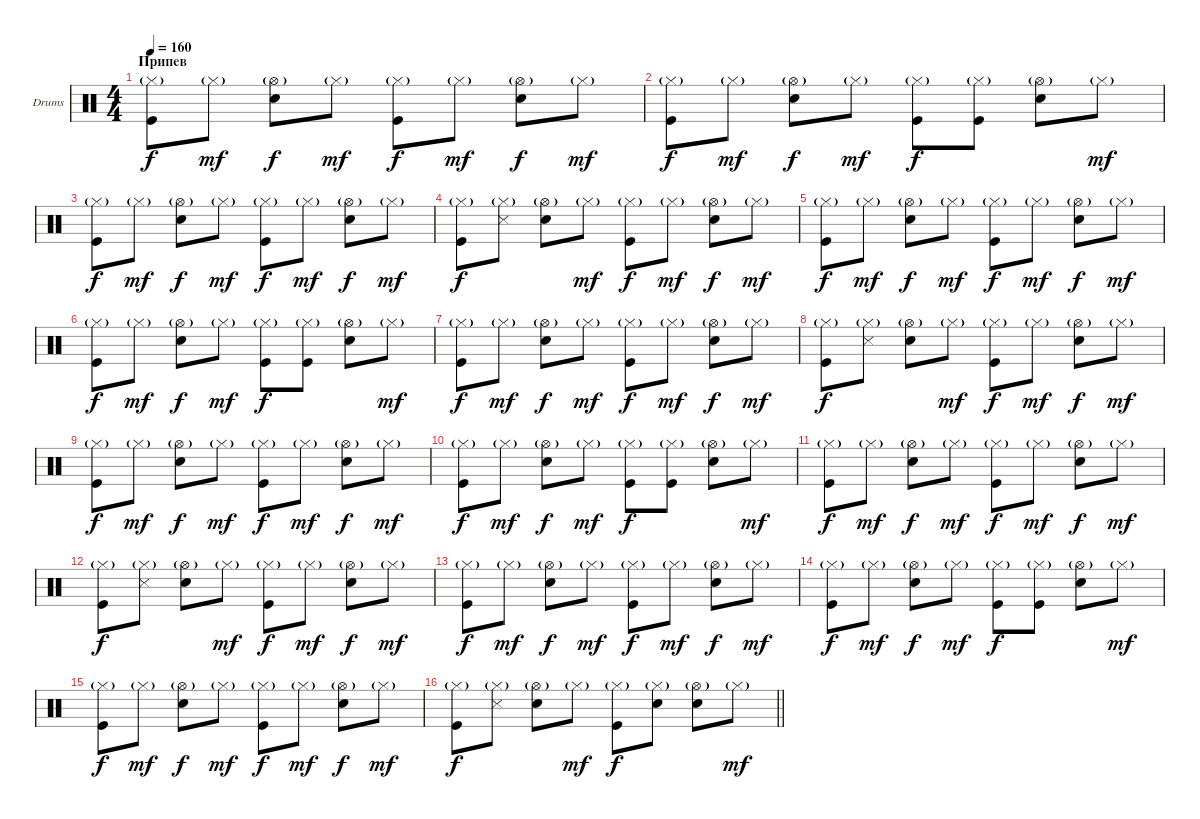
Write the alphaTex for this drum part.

\bracketExtendMode groupsimilarinstruments
\firstSystemTrackNameOrientation horizontal
\otherSystemsTrackNameOrientation horizontal
\track ("Ударные" "Drums") {instrument percussion}
\staff {score}
\articulation defaults
\ts (4 4)
\section ("" "Припев")
\tempo 160
\clef neutral
\ks c
("Hi-Hat (closed)"{g} "Kick (hit)").8{dy f} "Hi-Hat (closed)"{g}.8{dy mf} ("Hi-Hat (open)"{g} "Snare (hit) 2").8{dy f} "Hi-Hat (closed)"{g}.8{dy mf} ("Hi-Hat (closed)"{g} "Kick (hit)").8{dy f} "Hi-Hat (closed)"{g}.8{dy mf} ("Hi-Hat (open)"{g} "Snare (hit) 2").8{dy f} "Hi-Hat (closed)"{g}.8{dy mf} |
("Hi-Hat (closed)"{g} "Kick (hit)").8{dy f} "Hi-Hat (closed)"{g}.8{dy mf} ("Hi-Hat (open)"{g} "Snare (hit) 2").8{dy f} "Hi-Hat (closed)"{g}.8{dy mf} ("Hi-Hat (closed)"{g} "Kick (hit)").8{dy f} ("Hi-Hat (closed)"{g} "Kick (hit)").8 ("Hi-Hat (open)"{g} "Snare (hit) 2").8 "Hi-Hat (closed)"{g}.8{dy mf} |
("Hi-Hat (closed)"{g} "Kick (hit)").8{dy f} "Hi-Hat (closed)"{g}.8{dy mf} ("Hi-Hat (open)"{g} "Snare (hit) 2").8{dy f} "Hi-Hat (closed)"{g}.8{dy mf} ("Hi-Hat (closed)"{g} "Kick (hit)").8{dy f} "Hi-Hat (closed)"{g}.8{dy mf} ("Hi-Hat (open)"{g} "Snare (hit) 2").8{dy f} "Hi-Hat (closed)"{g}.8{dy mf} |
("Hi-Hat (closed)"{g} "Kick (hit)").8{dy f} ("Hi-Hat (closed)"{g} "Snare (side stick) 3").8 ("Hi-Hat (open)"{g} "Snare (hit) 2").8 "Hi-Hat (closed)"{g}.8{dy mf} ("Hi-Hat (closed)"{g} "Kick (hit)").8{dy f} "Hi-Hat (closed)"{g}.8{dy mf} ("Hi-Hat (open)"{g} "Snare (hit) 2").8{dy f} "Hi-Hat (closed)"{g}.8{dy mf} |
("Hi-Hat (closed)"{g} "Kick (hit)").8{dy f} "Hi-Hat (closed)"{g}.8{dy mf} ("Hi-Hat (open)"{g} "Snare (hit) 2").8{dy f} "Hi-Hat (closed)"{g}.8{dy mf} ("Hi-Hat (closed)"{g} "Kick (hit)").8{dy f} "Hi-Hat (closed)"{g}.8{dy mf} ("Hi-Hat (open)"{g} "Snare (hit) 2").8{dy f} "Hi-Hat (closed)"{g}.8{dy mf} |
("Hi-Hat (closed)"{g} "Kick (hit)").8{dy f} "Hi-Hat (closed)"{g}.8{dy mf} ("Hi-Hat (open)"{g} "Snare (hit) 2").8{dy f} "Hi-Hat (closed)"{g}.8{dy mf} ("Hi-Hat (closed)"{g} "Kick (hit)").8{dy f} ("Hi-Hat (closed)"{g} "Kick (hit)").8 ("Hi-Hat (open)"{g} "Snare (hit) 2").8 "Hi-Hat (closed)"{g}.8{dy mf} |
("Hi-Hat (closed)"{g} "Kick (hit)").8{dy f} "Hi-Hat (closed)"{g}.8{dy mf} ("Hi-Hat (open)"{g} "Snare (hit) 2").8{dy f} "Hi-Hat (closed)"{g}.8{dy mf} ("Hi-Hat (closed)"{g} "Kick (hit)").8{dy f} "Hi-Hat (closed)"{g}.8{dy mf} ("Hi-Hat (open)"{g} "Snare (hit) 2").8{dy f} "Hi-Hat (closed)"{g}.8{dy mf} |
("Hi-Hat (closed)"{g} "Kick (hit)").8{dy f} ("Hi-Hat (closed)"{g} "Snare (side stick) 3").8 ("Hi-Hat (open)"{g} "Snare (hit) 2").8 "Hi-Hat (closed)"{g}.8{dy mf} ("Hi-Hat (closed)"{g} "Kick (hit)").8{dy f} "Hi-Hat (closed)"{g}.8{dy mf} ("Hi-Hat (open)"{g} "Snare (hit) 2").8{dy f} "Hi-Hat (closed)"{g}.8{dy mf} |
("Hi-Hat (closed)"{g} "Kick (hit)").8{dy f} "Hi-Hat (closed)"{g}.8{dy mf} ("Hi-Hat (open)"{g} "Snare (hit) 2").8{dy f} "Hi-Hat (closed)"{g}.8{dy mf} ("Hi-Hat (closed)"{g} "Kick (hit)").8{dy f} "Hi-Hat (closed)"{g}.8{dy mf} ("Hi-Hat (open)"{g} "Snare (hit) 2").8{dy f} "Hi-Hat (closed)"{g}.8{dy mf} |
("Hi-Hat (closed)"{g} "Kick (hit)").8{dy f} "Hi-Hat (closed)"{g}.8{dy mf} ("Hi-Hat (open)"{g} "Snare (hit) 2").8{dy f} "Hi-Hat (closed)"{g}.8{dy mf} ("Hi-Hat (closed)"{g} "Kick (hit)").8{dy f} ("Hi-Hat (closed)"{g} "Kick (hit)").8 ("Hi-Hat (open)"{g} "Snare (hit) 2").8 "Hi-Hat (closed)"{g}.8{dy mf} |
("Hi-Hat (closed)"{g} "Kick (hit)").8{dy f} "Hi-Hat (closed)"{g}.8{dy mf} ("Hi-Hat (open)"{g} "Snare (hit) 2").8{dy f} "Hi-Hat (closed)"{g}.8{dy mf} ("Hi-Hat (closed)"{g} "Kick (hit)").8{dy f} "Hi-Hat (closed)"{g}.8{dy mf} ("Hi-Hat (open)"{g} "Snare (hit) 2").8{dy f} "Hi-Hat (closed)"{g}.8{dy mf} |
("Hi-Hat (closed)"{g} "Kick (hit)").8{dy f} ("Hi-Hat (closed)"{g} "Snare (side stick) 3").8 ("Hi-Hat (open)"{g} "Snare (hit) 2").8 "Hi-Hat (closed)"{g}.8{dy mf} ("Hi-Hat (closed)"{g} "Kick (hit)").8{dy f} "Hi-Hat (closed)"{g}.8{dy mf} ("Hi-Hat (open)"{g} "Snare (hit) 2").8{dy f} "Hi-Hat (closed)"{g}.8{dy mf} |
("Hi-Hat (closed)"{g} "Kick (hit)").8{dy f} "Hi-Hat (closed)"{g}.8{dy mf} ("Hi-Hat (open)"{g} "Snare (hit) 2").8{dy f} "Hi-Hat (closed)"{g}.8{dy mf} ("Hi-Hat (closed)"{g} "Kick (hit)").8{dy f} "Hi-Hat (closed)"{g}.8{dy mf} ("Hi-Hat (open)"{g} "Snare (hit) 2").8{dy f} "Hi-Hat (closed)"{g}.8{dy mf} |
("Hi-Hat (closed)"{g} "Kick (hit)").8{dy f} "Hi-Hat (closed)"{g}.8{dy mf} ("Hi-Hat (open)"{g} "Snare (hit) 2").8{dy f} "Hi-Hat (closed)"{g}.8{dy mf} ("Hi-Hat (closed)"{g} "Kick (hit)").8{dy f} ("Hi-Hat (closed)"{g} "Kick (hit)").8 ("Hi-Hat (open)"{g} "Snare (hit) 2").8 "Hi-Hat (closed)"{g}.8{dy mf} |
("Hi-Hat (closed)"{g} "Kick (hit)").8{dy f} "Hi-Hat (closed)"{g}.8{dy mf} ("Hi-Hat (open)"{g} "Snare (hit) 2").8{dy f} "Hi-Hat (closed)"{g}.8{dy mf} ("Hi-Hat (closed)"{g} "Kick (hit)").8{dy f} "Hi-Hat (closed)"{g}.8{dy mf} ("Hi-Hat (open)"{g} "Snare (hit) 2").8{dy f} "Hi-Hat (closed)"{g}.8{dy mf} |
\barLineRight lightlight
("Hi-Hat (closed)"{g} "Kick (hit)").8{dy f} ("Hi-Hat (closed)"{g} "Snare (side stick) 3").8 ("Hi-Hat (open)"{g} "Snare (hit) 2").8 "Hi-Hat (closed)"{g}.8{dy mf} ("Hi-Hat (closed)"{g} "Kick (hit)").8{dy f} ("Hi-Hat (closed)"{g} "Snare (hit) 2").8 ("Hi-Hat (open)"{g} "Snare (hit) 2").8 "Hi-Hat (closed)"{g}.8{dy mf}
